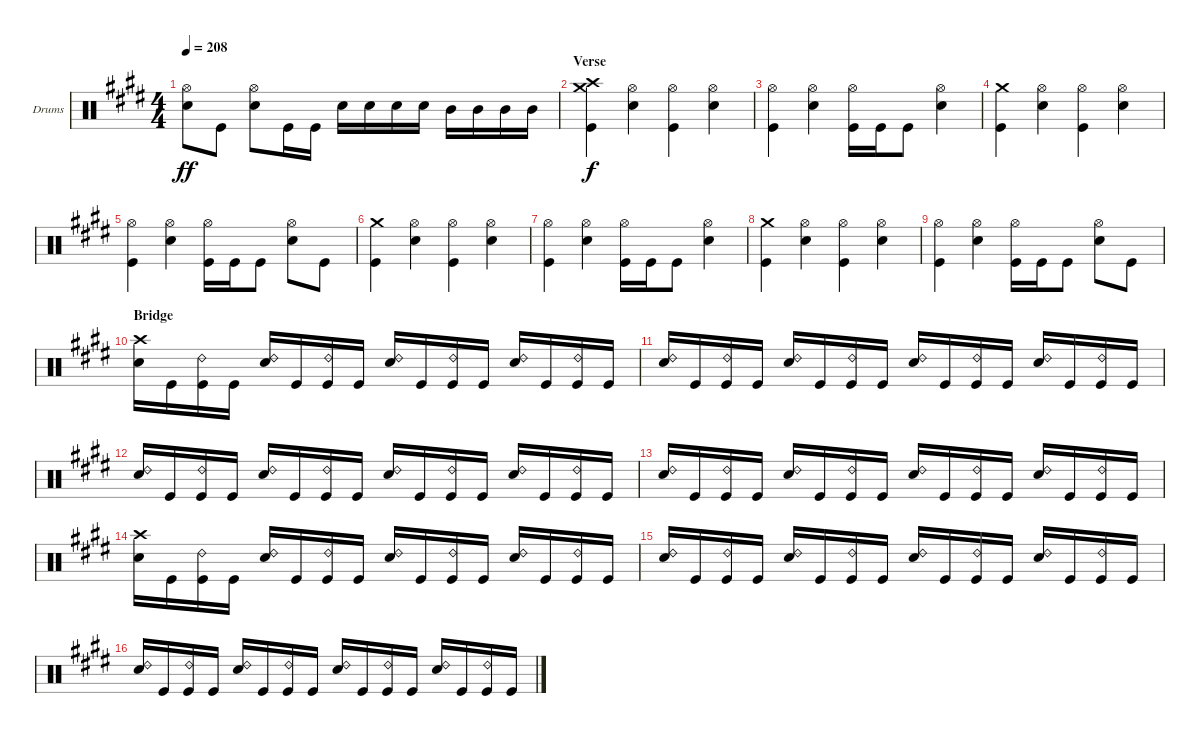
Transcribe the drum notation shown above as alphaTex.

\defaultSystemsLayout 4
\bracketExtendMode groupsimilarinstruments
\firstSystemTrackNameOrientation horizontal
\otherSystemsTrackNameOrientation horizontal
\track ("Corey Friedlander - Drums" "Drums") {instrument percussion}
\staff {score}
\articulation defaults
\ts (4 4)
\tempo 208
\clef neutral
\ks c#minor
("Snare (hit) 2" "Hi-Hat (open)").8{dy ff} "Kick (hit)".8 ("Snare (hit) 2" "Hi-Hat (open)").8 "Kick (hit)".16 "Kick (hit)".16 "Snare (hit) 2".16 "Snare (hit) 2".16 "Snare (hit) 2".16 "Snare (hit) 2".16 "Mid Tom (hit)".16 "Mid Tom (hit)".16 "Mid Tom (hit)".16 "Mid Tom (hit)".16 |
\section ("" "Verse")
("Kick (hit)" "Crash medium (hit)" "Crash high (hit)").4{dy f} ("Snare (hit) 2" "Hi-Hat (open)").4 ("Hi-Hat (open)" "Kick (hit)").4 ("Snare (hit) 2" "Hi-Hat (open)").4 |
("Hi-Hat (open)" "Kick (hit)").4 ("Snare (hit) 2" "Hi-Hat (open)").4 ("Kick (hit)" "Hi-Hat (open)").16 "Kick (hit)".16 "Kick (hit)".8 ("Hi-Hat (open)" "Snare (hit) 2").4 |
("Kick (hit)" "Crash medium (hit)").4 ("Snare (hit) 2" "Hi-Hat (open)").4 ("Hi-Hat (open)" "Kick (hit)").4 ("Snare (hit) 2" "Hi-Hat (open)").4 |
("Hi-Hat (open)" "Kick (hit)").4 ("Snare (hit) 2" "Hi-Hat (open)").4 ("Kick (hit)" "Hi-Hat (open)").16 "Kick (hit)".16 "Kick (hit)".8 ("Hi-Hat (open)" "Snare (hit) 2").8 "Kick (hit)".8 |
("Kick (hit)" "Crash medium (hit)").4 ("Snare (hit) 2" "Hi-Hat (open)").4 ("Hi-Hat (open)" "Kick (hit)").4 ("Snare (hit) 2" "Hi-Hat (open)").4 |
("Hi-Hat (open)" "Kick (hit)").4 ("Snare (hit) 2" "Hi-Hat (open)").4 ("Kick (hit)" "Hi-Hat (open)").16 "Kick (hit)".16 "Kick (hit)".8 ("Hi-Hat (open)" "Snare (hit) 2").4 |
("Kick (hit)" "Crash medium (hit)").4 ("Snare (hit) 2" "Hi-Hat (open)").4 ("Hi-Hat (open)" "Kick (hit)").4 ("Snare (hit) 2" "Hi-Hat (open)").4 |
("Hi-Hat (open)" "Kick (hit)").4 ("Snare (hit) 2" "Hi-Hat (open)").4 ("Kick (hit)" "Hi-Hat (open)").16 "Kick (hit)".16 "Kick (hit)".8 ("Hi-Hat (open)" "Snare (hit) 2").8 "Kick (hit)".8 |
\section ("" "Bridge")
("Snare (hit) 2" "Crash high (hit)").16 "Kick (hit)".16 ("Kick (hit)" "Ride (bell) 2").16 "Kick (hit)".16 ("Snare (hit) 2" "Ride (bell) 2").16 "Kick (hit)".16 ("Kick (hit)" "Ride (bell) 2").16 "Kick (hit)".16 ("Snare (hit) 2" "Ride (bell) 2").16 "Kick (hit)".16 ("Kick (hit)" "Ride (bell) 2").16 "Kick (hit)".16 ("Snare (hit) 2" "Ride (bell) 2").16 "Kick (hit)".16 ("Kick (hit)" "Ride (bell) 2").16 "Kick (hit)".16 |
("Snare (hit) 2" "Ride (bell) 2").16 "Kick (hit)".16 ("Kick (hit)" "Ride (bell) 2").16 "Kick (hit)".16 ("Snare (hit) 2" "Ride (bell) 2").16 "Kick (hit)".16 ("Kick (hit)" "Ride (bell) 2").16 "Kick (hit)".16 ("Snare (hit) 2" "Ride (bell) 2").16 "Kick (hit)".16 ("Kick (hit)" "Ride (bell) 2").16 "Kick (hit)".16 ("Snare (hit) 2" "Ride (bell) 2").16 "Kick (hit)".16 ("Kick (hit)" "Ride (bell) 2").16 "Kick (hit)".16 |
("Snare (hit) 2" "Ride (bell) 2").16 "Kick (hit)".16 ("Kick (hit)" "Ride (bell) 2").16 "Kick (hit)".16 ("Snare (hit) 2" "Ride (bell) 2").16 "Kick (hit)".16 ("Kick (hit)" "Ride (bell) 2").16 "Kick (hit)".16 ("Snare (hit) 2" "Ride (bell) 2").16 "Kick (hit)".16 ("Kick (hit)" "Ride (bell) 2").16 "Kick (hit)".16 ("Snare (hit) 2" "Ride (bell) 2").16 "Kick (hit)".16 ("Kick (hit)" "Ride (bell) 2").16 "Kick (hit)".16 |
("Snare (hit) 2" "Ride (bell) 2").16 "Kick (hit)".16 ("Kick (hit)" "Ride (bell) 2").16 "Kick (hit)".16 ("Snare (hit) 2" "Ride (bell) 2").16 "Kick (hit)".16 ("Kick (hit)" "Ride (bell) 2").16 "Kick (hit)".16 ("Snare (hit) 2" "Ride (bell) 2").16 "Kick (hit)".16 ("Kick (hit)" "Ride (bell) 2").16 "Kick (hit)".16 ("Snare (hit) 2" "Ride (bell) 2").16 "Kick (hit)".16 ("Kick (hit)" "Ride (bell) 2").16 "Kick (hit)".16 |
("Snare (hit) 2" "Crash high (hit)").16 "Kick (hit)".16 ("Kick (hit)" "Ride (bell) 2").16 "Kick (hit)".16 ("Snare (hit) 2" "Ride (bell) 2").16 "Kick (hit)".16 ("Kick (hit)" "Ride (bell) 2").16 "Kick (hit)".16 ("Snare (hit) 2" "Ride (bell) 2").16 "Kick (hit)".16 ("Kick (hit)" "Ride (bell) 2").16 "Kick (hit)".16 ("Snare (hit) 2" "Ride (bell) 2").16 "Kick (hit)".16 ("Kick (hit)" "Ride (bell) 2").16 "Kick (hit)".16 |
("Snare (hit) 2" "Ride (bell) 2").16 "Kick (hit)".16 ("Kick (hit)" "Ride (bell) 2").16 "Kick (hit)".16 ("Snare (hit) 2" "Ride (bell) 2").16 "Kick (hit)".16 ("Kick (hit)" "Ride (bell) 2").16 "Kick (hit)".16 ("Snare (hit) 2" "Ride (bell) 2").16 "Kick (hit)".16 ("Kick (hit)" "Ride (bell) 2").16 "Kick (hit)".16 ("Snare (hit) 2" "Ride (bell) 2").16 "Kick (hit)".16 ("Kick (hit)" "Ride (bell) 2").16 "Kick (hit)".16 |
("Snare (hit) 2" "Ride (bell) 2").16 "Kick (hit)".16 ("Kick (hit)" "Ride (bell) 2").16 "Kick (hit)".16 ("Snare (hit) 2" "Ride (bell) 2").16 "Kick (hit)".16 ("Kick (hit)" "Ride (bell) 2").16 "Kick (hit)".16 ("Snare (hit) 2" "Ride (bell) 2").16 "Kick (hit)".16 ("Kick (hit)" "Ride (bell) 2").16 "Kick (hit)".16 ("Snare (hit) 2" "Ride (bell) 2").16 "Kick (hit)".16 ("Kick (hit)" "Ride (bell) 2").16 "Kick (hit)".16
